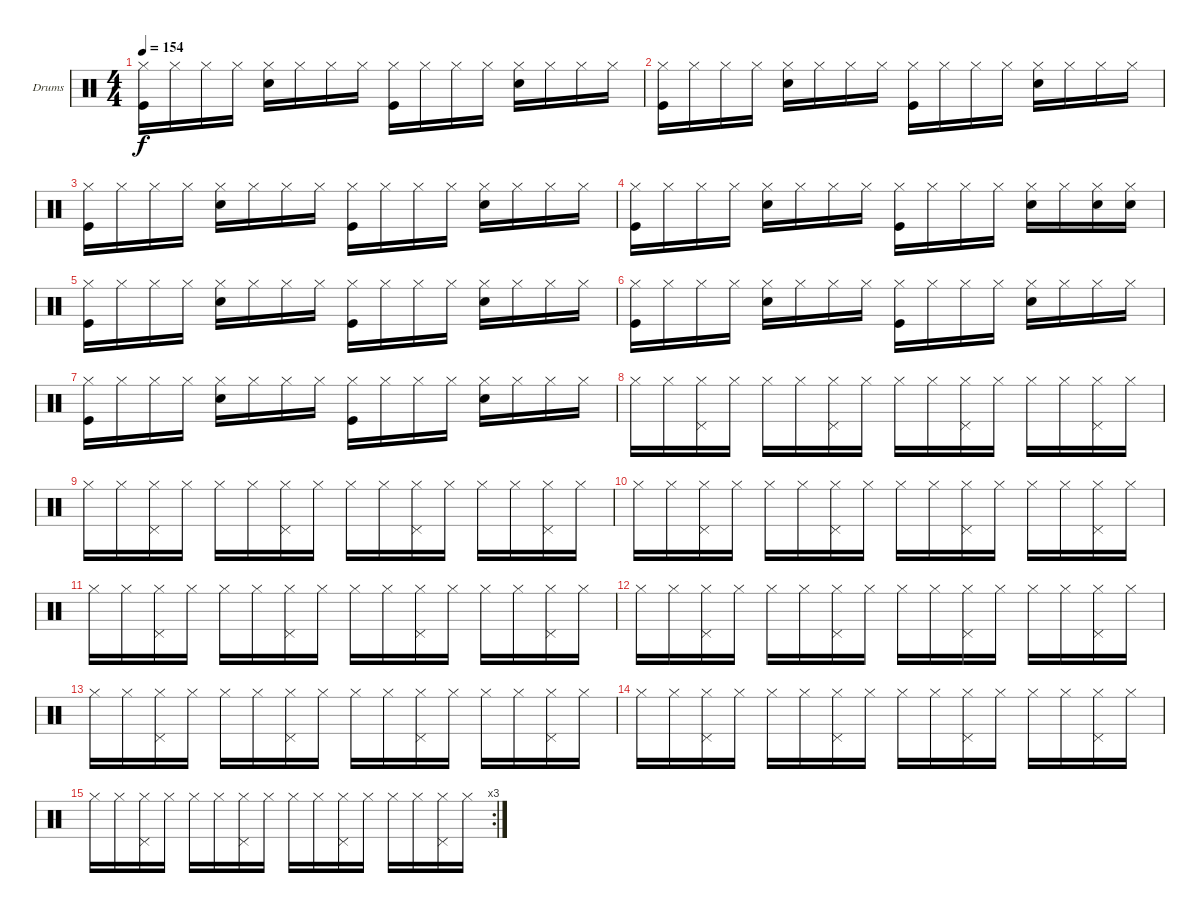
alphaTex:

\bracketExtendMode groupsimilarinstruments
\firstSystemTrackNameOrientation horizontal
\otherSystemsTrackNameOrientation horizontal
\track ("Drums" "Drums") {instrument percussion}
\staff {score}
\articulation defaults
\ts (4 4)
\tempo 154
\clef neutral
\ks c
("Kick (hit)" "Hi-Hat (closed)").16{dy f} "Hi-Hat (closed)".16 "Hi-Hat (closed)".16 "Hi-Hat (closed)".16 ("Snare (hit) 2" "Hi-Hat (closed)").16 "Hi-Hat (closed)".16 "Hi-Hat (closed)".16 "Hi-Hat (closed)".16 ("Kick (hit)" "Hi-Hat (closed)").16 "Hi-Hat (closed)".16 "Hi-Hat (closed)".16 "Hi-Hat (closed)".16 ("Snare (hit) 2" "Hi-Hat (closed)").16 "Hi-Hat (closed)".16 "Hi-Hat (closed)".16 "Hi-Hat (closed)".16 |
("Kick (hit)" "Hi-Hat (closed)").16 "Hi-Hat (closed)".16 "Hi-Hat (closed)".16 "Hi-Hat (closed)".16 ("Snare (hit) 2" "Hi-Hat (closed)").16 "Hi-Hat (closed)".16 "Hi-Hat (closed)".16 "Hi-Hat (closed)".16 ("Kick (hit)" "Hi-Hat (closed)").16 "Hi-Hat (closed)".16 "Hi-Hat (closed)".16 "Hi-Hat (closed)".16 ("Snare (hit) 2" "Hi-Hat (closed)").16 "Hi-Hat (closed)".16 "Hi-Hat (closed)".16 "Hi-Hat (closed)".16 |
("Kick (hit)" "Hi-Hat (closed)").16 "Hi-Hat (closed)".16 "Hi-Hat (closed)".16 "Hi-Hat (closed)".16 ("Snare (hit) 2" "Hi-Hat (closed)").16 "Hi-Hat (closed)".16 "Hi-Hat (closed)".16 "Hi-Hat (closed)".16 ("Kick (hit)" "Hi-Hat (closed)").16 "Hi-Hat (closed)".16 "Hi-Hat (closed)".16 "Hi-Hat (closed)".16 ("Snare (hit) 2" "Hi-Hat (closed)").16 "Hi-Hat (closed)".16 "Hi-Hat (closed)".16 "Hi-Hat (closed)".16 |
("Kick (hit)" "Hi-Hat (closed)").16 "Hi-Hat (closed)".16 "Hi-Hat (closed)".16 "Hi-Hat (closed)".16 ("Snare (hit) 2" "Hi-Hat (closed)").16 "Hi-Hat (closed)".16 "Hi-Hat (closed)".16 "Hi-Hat (closed)".16 ("Kick (hit)" "Hi-Hat (closed)").16 "Hi-Hat (closed)".16 "Hi-Hat (closed)".16 "Hi-Hat (closed)".16 ("Snare (hit) 2" "Hi-Hat (closed)").16 "Hi-Hat (closed)".16 ("Snare (hit) 2" "Hi-Hat (closed)").16 ("Snare (hit) 2" "Hi-Hat (closed)").16 |
("Kick (hit)" "Hi-Hat (closed)").16 "Hi-Hat (closed)".16 "Hi-Hat (closed)".16 "Hi-Hat (closed)".16 ("Snare (hit) 2" "Hi-Hat (closed)").16 "Hi-Hat (closed)".16 "Hi-Hat (closed)".16 "Hi-Hat (closed)".16 ("Kick (hit)" "Hi-Hat (closed)").16 "Hi-Hat (closed)".16 "Hi-Hat (closed)".16 "Hi-Hat (closed)".16 ("Snare (hit) 2" "Hi-Hat (closed)").16 "Hi-Hat (closed)".16 "Hi-Hat (closed)".16 "Hi-Hat (closed)".16 |
("Kick (hit)" "Hi-Hat (closed)").16 "Hi-Hat (closed)".16 "Hi-Hat (closed)".16 "Hi-Hat (closed)".16 ("Snare (hit) 2" "Hi-Hat (closed)").16 "Hi-Hat (closed)".16 "Hi-Hat (closed)".16 "Hi-Hat (closed)".16 ("Kick (hit)" "Hi-Hat (closed)").16 "Hi-Hat (closed)".16 "Hi-Hat (closed)".16 "Hi-Hat (closed)".16 ("Snare (hit) 2" "Hi-Hat (closed)").16 "Hi-Hat (closed)".16 "Hi-Hat (closed)".16 "Hi-Hat (closed)".16 |
("Kick (hit)" "Hi-Hat (closed)").16 "Hi-Hat (closed)".16 "Hi-Hat (closed)".16 "Hi-Hat (closed)".16 ("Snare (hit) 2" "Hi-Hat (closed)").16 "Hi-Hat (closed)".16 "Hi-Hat (closed)".16 "Hi-Hat (closed)".16 ("Kick (hit)" "Hi-Hat (closed)").16 "Hi-Hat (closed)".16 "Hi-Hat (closed)".16 "Hi-Hat (closed)".16 ("Snare (hit) 2" "Hi-Hat (closed)").16 "Hi-Hat (closed)".16 "Hi-Hat (closed)".16 "Hi-Hat (closed)".16 |
"Hi-Hat (closed)".16 "Hi-Hat (closed)".16 ("Hi-Hat (closed)" "Pedal Hi-Hat (hit)").16 "Hi-Hat (closed)".16 "Hi-Hat (closed)".16 "Hi-Hat (closed)".16 ("Hi-Hat (closed)" "Pedal Hi-Hat (hit)").16 "Hi-Hat (closed)".16 "Hi-Hat (closed)".16 "Hi-Hat (closed)".16 ("Hi-Hat (closed)" "Pedal Hi-Hat (hit)").16 "Hi-Hat (closed)".16 "Hi-Hat (closed)".16 "Hi-Hat (closed)".16 ("Hi-Hat (closed)" "Pedal Hi-Hat (hit)").16 "Hi-Hat (closed)".16 |
"Hi-Hat (closed)".16 "Hi-Hat (closed)".16 ("Hi-Hat (closed)" "Pedal Hi-Hat (hit)").16 "Hi-Hat (closed)".16 "Hi-Hat (closed)".16 "Hi-Hat (closed)".16 ("Hi-Hat (closed)" "Pedal Hi-Hat (hit)").16 "Hi-Hat (closed)".16 "Hi-Hat (closed)".16 "Hi-Hat (closed)".16 ("Hi-Hat (closed)" "Pedal Hi-Hat (hit)").16 "Hi-Hat (closed)".16 "Hi-Hat (closed)".16 "Hi-Hat (closed)".16 ("Hi-Hat (closed)" "Pedal Hi-Hat (hit)").16 "Hi-Hat (closed)".16 |
"Hi-Hat (closed)".16 "Hi-Hat (closed)".16 ("Hi-Hat (closed)" "Pedal Hi-Hat (hit)").16 "Hi-Hat (closed)".16 "Hi-Hat (closed)".16 "Hi-Hat (closed)".16 ("Hi-Hat (closed)" "Pedal Hi-Hat (hit)").16 "Hi-Hat (closed)".16 "Hi-Hat (closed)".16 "Hi-Hat (closed)".16 ("Hi-Hat (closed)" "Pedal Hi-Hat (hit)").16 "Hi-Hat (closed)".16 "Hi-Hat (closed)".16 "Hi-Hat (closed)".16 ("Hi-Hat (closed)" "Pedal Hi-Hat (hit)").16 "Hi-Hat (closed)".16 |
"Hi-Hat (closed)".16 "Hi-Hat (closed)".16 ("Hi-Hat (closed)" "Pedal Hi-Hat (hit)").16 "Hi-Hat (closed)".16 "Hi-Hat (closed)".16 "Hi-Hat (closed)".16 ("Hi-Hat (closed)" "Pedal Hi-Hat (hit)").16 "Hi-Hat (closed)".16 "Hi-Hat (closed)".16 "Hi-Hat (closed)".16 ("Hi-Hat (closed)" "Pedal Hi-Hat (hit)").16 "Hi-Hat (closed)".16 "Hi-Hat (closed)".16 "Hi-Hat (closed)".16 ("Hi-Hat (closed)" "Pedal Hi-Hat (hit)").16 "Hi-Hat (closed)".16 |
"Hi-Hat (closed)".16 "Hi-Hat (closed)".16 ("Hi-Hat (closed)" "Pedal Hi-Hat (hit)").16 "Hi-Hat (closed)".16 "Hi-Hat (closed)".16 "Hi-Hat (closed)".16 ("Hi-Hat (closed)" "Pedal Hi-Hat (hit)").16 "Hi-Hat (closed)".16 "Hi-Hat (closed)".16 "Hi-Hat (closed)".16 ("Hi-Hat (closed)" "Pedal Hi-Hat (hit)").16 "Hi-Hat (closed)".16 "Hi-Hat (closed)".16 "Hi-Hat (closed)".16 ("Hi-Hat (closed)" "Pedal Hi-Hat (hit)").16 "Hi-Hat (closed)".16 |
"Hi-Hat (closed)".16 "Hi-Hat (closed)".16 ("Hi-Hat (closed)" "Pedal Hi-Hat (hit)").16 "Hi-Hat (closed)".16 "Hi-Hat (closed)".16 "Hi-Hat (closed)".16 ("Hi-Hat (closed)" "Pedal Hi-Hat (hit)").16 "Hi-Hat (closed)".16 "Hi-Hat (closed)".16 "Hi-Hat (closed)".16 ("Hi-Hat (closed)" "Pedal Hi-Hat (hit)").16 "Hi-Hat (closed)".16 "Hi-Hat (closed)".16 "Hi-Hat (closed)".16 ("Hi-Hat (closed)" "Pedal Hi-Hat (hit)").16 "Hi-Hat (closed)".16 |
"Hi-Hat (closed)".16 "Hi-Hat (closed)".16 ("Hi-Hat (closed)" "Pedal Hi-Hat (hit)").16 "Hi-Hat (closed)".16 "Hi-Hat (closed)".16 "Hi-Hat (closed)".16 ("Hi-Hat (closed)" "Pedal Hi-Hat (hit)").16 "Hi-Hat (closed)".16 "Hi-Hat (closed)".16 "Hi-Hat (closed)".16 ("Hi-Hat (closed)" "Pedal Hi-Hat (hit)").16 "Hi-Hat (closed)".16 "Hi-Hat (closed)".16 "Hi-Hat (closed)".16 ("Hi-Hat (closed)" "Pedal Hi-Hat (hit)").16 "Hi-Hat (closed)".16 |
\rc 3 "Hi-Hat (closed)".16 "Hi-Hat (closed)".16
("Hi-Hat (closed)" "Pedal Hi-Hat (hit)").16 "Hi-Hat (closed)".16 "Hi-Hat (closed)".16 "Hi-Hat (closed)".16 ("Hi-Hat (closed)" "Pedal Hi-Hat (hit)").16 "Hi-Hat (closed)".16 "Hi-Hat (closed)".16 "Hi-Hat (closed)".16 ("Hi-Hat (closed)" "Pedal Hi-Hat (hit)").16 "Hi-Hat (closed)".16 "Hi-Hat (closed)".16 "Hi-Hat (closed)".16 ("Hi-Hat (closed)" "Pedal Hi-Hat (hit)").16 "Hi-Hat (closed)".16
